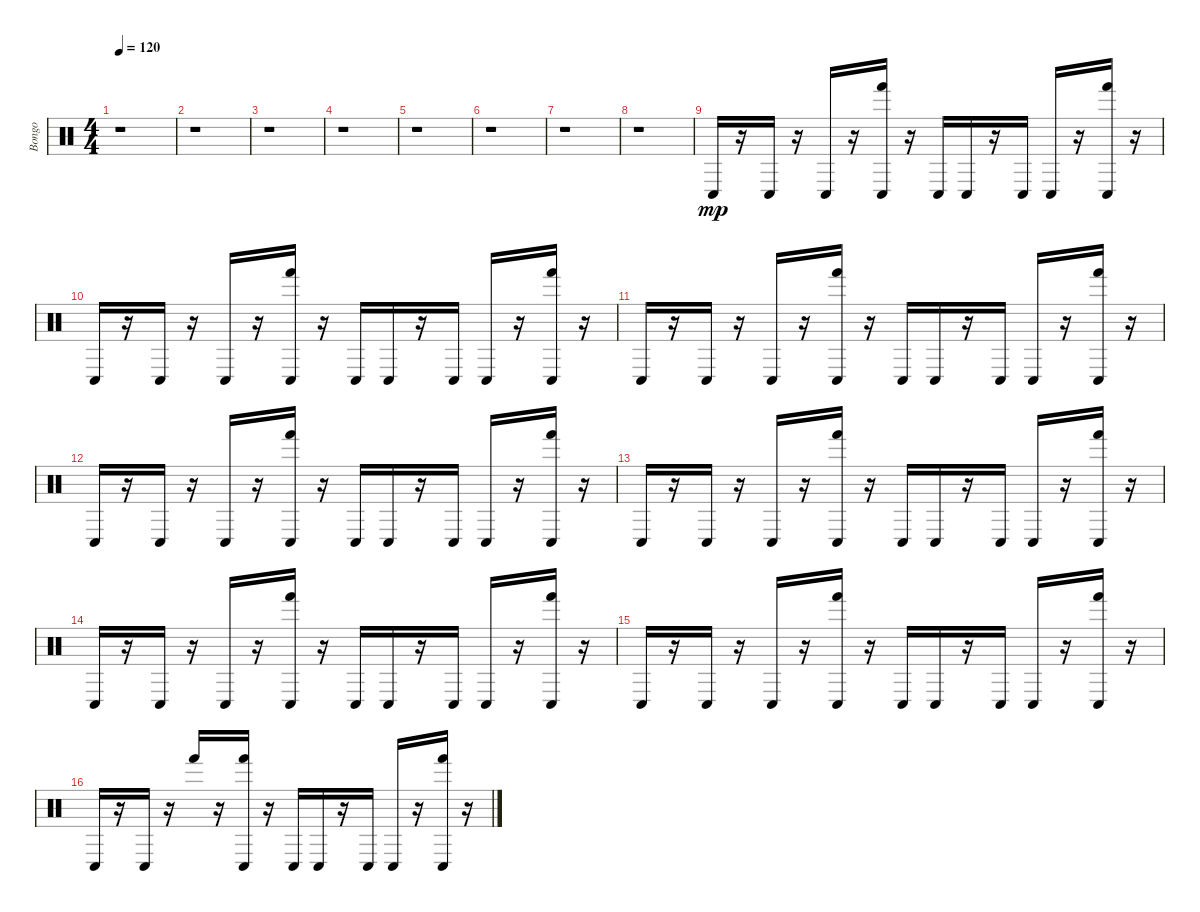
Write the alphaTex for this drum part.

\track ("Bongo" "Bongo") {instrument percussion}
\staff {score}
\articulation defaults
\ts (4 4)
\tempo 120
\clef neutral
\ks c
r.1{dy mp} |
r.1 |
r.1 |
r.1 |
r.1 |
r.1 |
r.1 |
r.1 |
"Conga low (hit)".16 r.16 "Conga low (hit)".16 r.16 "Conga low (hit)".16 r.16 ("Conga low (hit)" "Hand (hit)").16 r.16 "Conga low (hit)".16 "Conga low (hit)".16 r.16 "Conga low (hit)".16 "Conga low (hit)".16 r.16 ("Conga low (hit)" "Hand (hit)").16 r.16 |
"Conga low (hit)".16 r.16 "Conga low (hit)".16 r.16 "Conga low (hit)".16 r.16 ("Conga low (hit)" "Hand (hit)").16 r.16 "Conga low (hit)".16 "Conga low (hit)".16 r.16 "Conga low (hit)".16 "Conga low (hit)".16 r.16 ("Conga low (hit)" "Hand (hit)").16 r.16 |
"Conga low (hit)".16 r.16 "Conga low (hit)".16 r.16 "Conga low (hit)".16 r.16 ("Conga low (hit)" "Hand (hit)").16 r.16 "Conga low (hit)".16 "Conga low (hit)".16 r.16 "Conga low (hit)".16 "Conga low (hit)".16 r.16 ("Conga low (hit)" "Hand (hit)").16 r.16 |
"Conga low (hit)".16 r.16 "Conga low (hit)".16 r.16 "Conga low (hit)".16 r.16 ("Conga low (hit)" "Hand (hit)").16 r.16 "Conga low (hit)".16 "Conga low (hit)".16 r.16 "Conga low (hit)".16 "Conga low (hit)".16 r.16 ("Conga low (hit)" "Hand (hit)").16 r.16 |
"Conga low (hit)".16 r.16 "Conga low (hit)".16 r.16 "Conga low (hit)".16 r.16 ("Conga low (hit)" "Hand (hit)").16 r.16 "Conga low (hit)".16 "Conga low (hit)".16 r.16 "Conga low (hit)".16 "Conga low (hit)".16 r.16 ("Conga low (hit)" "Hand (hit)").16 r.16 |
"Conga low (hit)".16 r.16 "Conga low (hit)".16 r.16 "Conga low (hit)".16 r.16 ("Conga low (hit)" "Hand (hit)").16 r.16 "Conga low (hit)".16 "Conga low (hit)".16 r.16 "Conga low (hit)".16 "Conga low (hit)".16 r.16 ("Conga low (hit)" "Hand (hit)").16 r.16 |
"Conga low (hit)".16 r.16 "Conga low (hit)".16 r.16 "Conga low (hit)".16 r.16 ("Conga low (hit)" "Hand (hit)").16 r.16 "Conga low (hit)".16 "Conga low (hit)".16 r.16 "Conga low (hit)".16 "Conga low (hit)".16 r.16 ("Conga low (hit)" "Hand (hit)").16 r.16 |
"Conga low (hit)".16 r.16 "Conga low (hit)".16 r.16 "Hand (hit)".16 r.16 ("Conga low (hit)" "Hand (hit)").16 r.16 "Conga low (hit)".16 "Conga low (hit)".16 r.16 "Conga low (hit)".16 "Conga low (hit)".16 r.16 ("Conga low (hit)" "Hand (hit)").16 r.16
